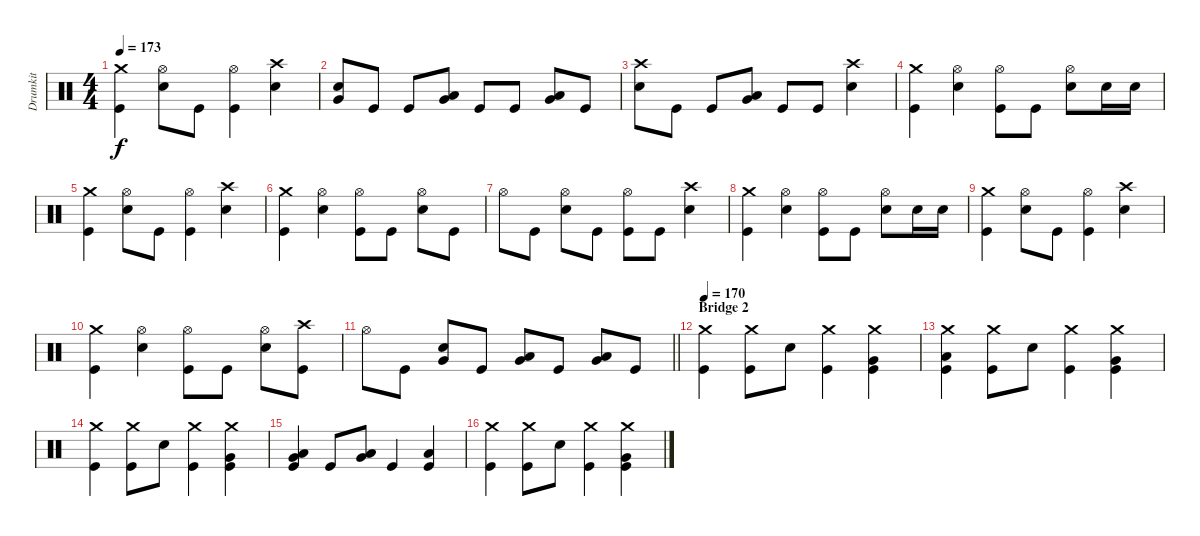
\track ("Drumkit" "Drumkit") {instrument percussion}
\staff {score}
\articulation defaults
\ts (4 4)
\tempo 173
\clef neutral
\ks c
("Crash medium (hit)" "Kick (hit)").4{dy f} ("Hi-Hat (open)" "Snare (hit) 2").8 "Kick (hit)".8 ("Hi-Hat (open)" "Kick (hit)").4 ("Crash high (hit)" "Snare (hit) 2").4 |
("Very Low Tom (hit)" "Snare (hit) 2").8 "Kick (hit)".8 "Kick (hit)".8 ("Very Low Tom (hit)" "Low Tom (hit)").8 "Kick (hit)".8 "Kick (hit)".8 ("Very Low Tom (hit)" "Low Floor Tom (hit)").8 "Kick (hit)".8 |
("Crash high (hit)" "Snare (hit) 2").8 "Kick (hit)".8 "Kick (hit)".8 ("Very Low Tom (hit)" "Low Tom (hit)").8 "Kick (hit)".8 "Kick (hit)".8 ("Crash high (hit)" "Snare (hit) 2").4 |
("Crash medium (hit)" "Kick (hit)").4 ("Hi-Hat (open)" "Snare (hit) 2").4 ("Hi-Hat (open)" "Kick (hit)").8 "Kick (hit)".8 ("Hi-Hat (open)" "Snare (hit) 2").8 "Snare (hit) 2".16 "Snare (hit) 2".16 |
("Crash medium (hit)" "Kick (hit)").4 ("Hi-Hat (open)" "Snare (hit) 2").8 "Kick (hit)".8 ("Hi-Hat (open)" "Kick (hit)").4 ("Crash high (hit)" "Snare (hit) 2").4 |
("Crash medium (hit)" "Kick (hit)").4 ("Hi-Hat (open)" "Snare (hit) 2").4 ("Hi-Hat (open)" "Kick (hit)").8 "Kick (hit)".8 ("Hi-Hat (open)" "Snare (hit) 2").8 "Kick (hit)".8 |
"Hi-Hat (open)".8 "Kick (hit)".8 ("Hi-Hat (open)" "Snare (hit) 2").8 "Kick (hit)".8 ("Hi-Hat (open)" "Kick (hit)").8 "Kick (hit)".8 ("Crash high (hit)" "Snare (hit) 2").4 |
("Crash medium (hit)" "Kick (hit)").4 ("Hi-Hat (open)" "Snare (hit) 2").4 ("Hi-Hat (open)" "Kick (hit)").8 "Kick (hit)".8 ("Hi-Hat (open)" "Snare (hit) 2").8 "Snare (hit) 2".16 "Snare (hit) 2".16 |
("Crash medium (hit)" "Kick (hit)").4 ("Hi-Hat (open)" "Snare (hit) 2").8 "Kick (hit)".8 ("Hi-Hat (open)" "Kick (hit)").4 ("Crash high (hit)" "Snare (hit) 2").4 |
("Crash medium (hit)" "Kick (hit)").4 ("Hi-Hat (open)" "Snare (hit) 2").4 ("Hi-Hat (open)" "Kick (hit)").8 "Kick (hit)".8 ("Hi-Hat (open)" "Snare (hit) 2").8 ("Crash high (hit)" "Kick (hit)").8 |
\barLineRight lightlight "Hi-Hat (open)".8 "Kick (hit)".8
("Very Low Tom (hit)" "Snare (hit) 2").8 "Kick (hit)".8 ("Low Tom (hit)" "Very Low Tom (hit)").8 "Kick (hit)".8 ("Low Floor Tom (hit)" "Very Low Tom (hit)").8 "Kick (hit)".8 |
\section ("" "Bridge 2")
\tempo 170
("Crash medium (hit)" "Kick (hit)").4 ("Crash medium (hit)" "Kick (hit)").8 "Snare (hit) 2".8 ("Crash medium (hit)" "Kick (hit)").4 ("Crash medium (hit)" "Very Low Tom (hit)" "Kick (hit)").4 |
("Crash medium (hit)" "Low Floor Tom (hit)" "Kick (hit)").4 ("Crash medium (hit)" "Kick (hit)").8 "Snare (hit) 2".8 ("Crash medium (hit)" "Kick (hit)").4 ("Crash medium (hit)" "Very Low Tom (hit)" "Kick (hit)").4 |
("Crash medium (hit)" "Kick (hit)").4 ("Crash medium (hit)" "Kick (hit)").8 "Snare (hit) 2".8 ("Crash medium (hit)" "Kick (hit)").4 ("Crash medium (hit)" "Very Low Tom (hit)" "Kick (hit)").4 |
("Low Tom (hit)" "Very Low Tom (hit)" "Kick (hit)").4 "Kick (hit)".8 ("Low Floor Tom (hit)" "Very Low Tom (hit)").8 "Kick (hit)".4 ("Low Floor Tom (hit)" "Kick (hit)").4 |
("Crash medium (hit)" "Kick (hit)").4 ("Crash medium (hit)" "Kick (hit)").8 "Snare (hit) 2".8 ("Crash medium (hit)" "Kick (hit)").4 ("Crash medium (hit)" "Very Low Tom (hit)" "Kick (hit)").4
